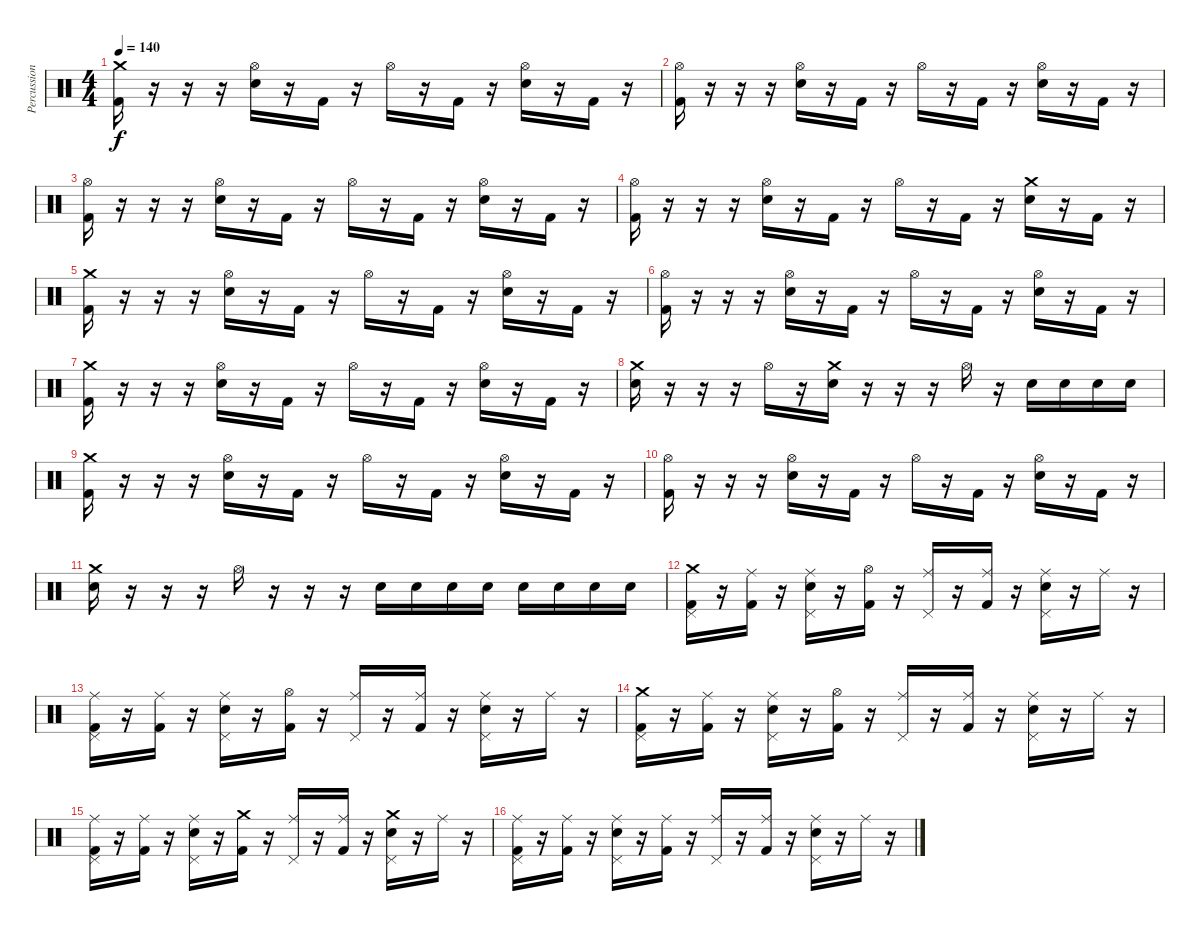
\track ("Percussion" "Percussion") {instrument percussion}
\staff {score}
\articulation defaults
\ts (4 4)
\tempo 140
\clef neutral
\ks c
("Crash medium (hit)" "Kick (hit) 2").16{dy f} r.16 r.16 r.16 ("Hi-Hat (open)" "Snare (hit) 2").16 r.16 "Kick (hit) 2".16 r.16 "Hi-Hat (open)".16 r.16 "Kick (hit) 2".16 r.16 ("Hi-Hat (open)" "Snare (hit) 2").16 r.16 "Kick (hit) 2".16 r.16 |
("Hi-Hat (open)" "Kick (hit) 2").16 r.16 r.16 r.16 ("Hi-Hat (open)" "Snare (hit) 2").16 r.16 "Kick (hit) 2".16 r.16 "Hi-Hat (open)".16 r.16 "Kick (hit) 2".16 r.16 ("Hi-Hat (open)" "Snare (hit) 2").16 r.16 "Kick (hit) 2".16 r.16 |
("Hi-Hat (open)" "Kick (hit) 2").16 r.16 r.16 r.16 ("Hi-Hat (open)" "Snare (hit) 2").16 r.16 "Kick (hit) 2".16 r.16 "Hi-Hat (open)".16 r.16 "Kick (hit) 2".16 r.16 ("Hi-Hat (open)" "Snare (hit) 2").16 r.16 "Kick (hit) 2".16 r.16 |
("Hi-Hat (open)" "Kick (hit) 2").16 r.16 r.16 r.16 ("Hi-Hat (open)" "Snare (hit) 2").16 r.16 "Kick (hit) 2".16 r.16 "Hi-Hat (open)".16 r.16 "Kick (hit) 2".16 r.16 ("Crash medium (hit)" "Snare (hit) 2").16 r.16 "Kick (hit) 2".16 r.16 |
("Crash medium (hit)" "Kick (hit) 2").16 r.16 r.16 r.16 ("Hi-Hat (open)" "Snare (hit) 2").16 r.16 "Kick (hit) 2".16 r.16 "Hi-Hat (open)".16 r.16 "Kick (hit) 2".16 r.16 ("Hi-Hat (open)" "Snare (hit) 2").16 r.16 "Kick (hit) 2".16 r.16 |
("Hi-Hat (open)" "Kick (hit) 2").16 r.16 r.16 r.16 ("Hi-Hat (open)" "Snare (hit) 2").16 r.16 "Kick (hit) 2".16 r.16 "Hi-Hat (open)".16 r.16 "Kick (hit) 2".16 r.16 ("Hi-Hat (open)" "Snare (hit) 2").16 r.16 "Kick (hit) 2".16 r.16 |
("Crash medium (hit)" "Kick (hit) 2").16 r.16 r.16 r.16 ("Hi-Hat (open)" "Snare (hit) 2").16 r.16 "Kick (hit) 2".16 r.16 "Hi-Hat (open)".16 r.16 "Kick (hit) 2".16 r.16 ("Hi-Hat (open)" "Snare (hit) 2").16 r.16 "Kick (hit) 2".16 r.16 |
("Crash medium (hit)" "Snare (hit) 2").16 r.16 r.16 r.16 "Hi-Hat (open)".16 r.16 ("Crash medium (hit)" "Snare (hit) 2").16 r.16 r.16 r.16 "Hi-Hat (open)".16 r.16 "Snare (hit) 2".16 "Snare (hit) 2".16 "Snare (hit) 2".16 "Snare (hit) 2".16 |
("Crash medium (hit)" "Kick (hit) 2").16 r.16 r.16 r.16 ("Hi-Hat (open)" "Snare (hit) 2").16 r.16 "Kick (hit) 2".16 r.16 "Hi-Hat (open)".16 r.16 "Kick (hit) 2".16 r.16 ("Hi-Hat (open)" "Snare (hit) 2").16 r.16 "Kick (hit) 2".16 r.16 |
("Hi-Hat (open)" "Kick (hit) 2").16 r.16 r.16 r.16 ("Hi-Hat (open)" "Snare (hit) 2").16 r.16 "Kick (hit) 2".16 r.16 "Hi-Hat (open)".16 r.16 "Kick (hit) 2".16 r.16 ("Hi-Hat (open)" "Snare (hit) 2").16 r.16 "Kick (hit) 2".16 r.16 |
("Crash medium (hit)" "Snare (hit) 2").16 r.16 r.16 r.16 "Hi-Hat (open)".16 r.16 r.16 r.16 "Snare (hit) 2".16 "Snare (hit) 2".16 "Snare (hit) 2".16 "Snare (hit) 2".16 "Snare (hit) 2".16 "Snare (hit) 2".16 "Snare (hit) 2".16 "Snare (hit) 2".16 |
("Crash medium (hit)" "Pedal Hi-Hat (hit)" "Kick (hit) 2").16 r.16 ("Ride (middle)" "Kick (hit) 2").16 r.16 ("Ride (middle)" "Pedal Hi-Hat (hit)" "Snare (hit) 2").16 r.16 ("Hi-Hat (open)" "Kick (hit) 2").16 r.16 ("Ride (middle)" "Pedal Hi-Hat (hit)").16 r.16 ("Ride (middle)" "Kick (hit) 2").16 r.16 ("Ride (middle)" "Pedal Hi-Hat (hit)" "Snare (hit) 2").16 r.16 "Ride (middle)".16 r.16 |
("Ride (middle)" "Pedal Hi-Hat (hit)" "Kick (hit) 2").16 r.16 ("Ride (middle)" "Kick (hit) 2").16 r.16 ("Ride (middle)" "Pedal Hi-Hat (hit)" "Snare (hit) 2").16 r.16 ("Hi-Hat (open)" "Kick (hit) 2").16 r.16 ("Ride (middle)" "Pedal Hi-Hat (hit)").16 r.16 ("Ride (middle)" "Kick (hit) 2").16 r.16 ("Ride (middle)" "Pedal Hi-Hat (hit)" "Snare (hit) 2").16 r.16 "Ride (middle)".16 r.16 |
("Crash medium (hit)" "Pedal Hi-Hat (hit)" "Kick (hit) 2").16 r.16 ("Ride (middle)" "Kick (hit) 2").16 r.16 ("Ride (middle)" "Pedal Hi-Hat (hit)" "Snare (hit) 2").16 r.16 ("Hi-Hat (open)" "Kick (hit) 2").16 r.16 ("Ride (middle)" "Pedal Hi-Hat (hit)").16 r.16 ("Ride (middle)" "Kick (hit) 2").16 r.16 ("Ride (middle)" "Pedal Hi-Hat (hit)" "Snare (hit) 2").16 r.16 "Ride (middle)".16 r.16 |
("Ride (middle)" "Pedal Hi-Hat (hit)" "Kick (hit) 2").16 r.16 ("Ride (middle)" "Kick (hit) 2").16 r.16 ("Ride (middle)" "Pedal Hi-Hat (hit)" "Snare (hit) 2").16 r.16 ("Crash medium (hit)" "Kick (hit) 2").16 r.16 ("Ride (middle)" "Pedal Hi-Hat (hit)").16 r.16 ("Ride (middle)" "Kick (hit) 2").16 r.16 ("Crash medium (hit)" "Pedal Hi-Hat (hit)" "Snare (hit) 2").16 r.16 "Ride (middle)".16 r.16 |
("Ride (middle)" "Pedal Hi-Hat (hit)" "Kick (hit) 2").16 r.16 ("Ride (middle)" "Kick (hit) 2").16 r.16 ("Ride (middle)" "Pedal Hi-Hat (hit)" "Snare (hit) 2").16 r.16 ("Ride (middle)" "Kick (hit) 2").16 r.16 ("Ride (middle)" "Pedal Hi-Hat (hit)").16 r.16 ("Ride (middle)" "Kick (hit) 2").16 r.16 ("Ride (middle)" "Pedal Hi-Hat (hit)" "Snare (hit) 2").16 r.16 "Ride (middle)".16 r.16
